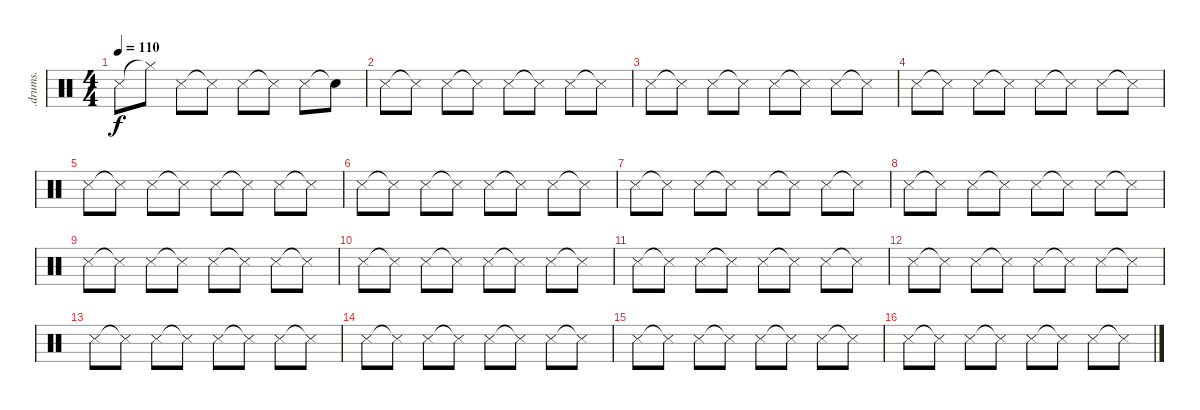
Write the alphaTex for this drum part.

\track (".drums." ".drums.") {instrument percussion}
\staff {score}
\articulation defaults
\ts (4 4)
\tempo 110
\clef neutral
\ks c "Snare (side stick) 3".8{dy f} "Hi-Hat (closed)"{t}.8 "Snare (side stick) 3".8 "Snare (side stick) 3"{t}.8 "Snare (side stick) 3".8 "Snare (side stick) 3"{t}.8 "Snare (side stick) 3".8 "Snare (hit)"{t}.8
|
"Snare (side stick) 3".8 "Snare (side stick) 3"{t}.8 "Snare (side stick) 3".8 "Snare (side stick) 3"{t}.8 "Snare (side stick) 3".8 "Snare (side stick) 3"{t}.8 "Snare (side stick) 3".8 "Snare (side stick) 3"{t}.8 |
"Snare (side stick) 3".8 "Snare (side stick) 3"{t}.8 "Snare (side stick) 3".8 "Snare (side stick) 3"{t}.8 "Snare (side stick) 3".8 "Snare (side stick) 3"{t}.8 "Snare (side stick) 3".8 "Snare (side stick) 3"{t}.8 |
"Snare (side stick) 3".8 "Snare (side stick) 3"{t}.8 "Snare (side stick) 3".8 "Snare (side stick) 3"{t}.8 "Snare (side stick) 3".8 "Snare (side stick) 3"{t}.8 "Snare (side stick) 3".8 "Snare (side stick) 3"{t}.8 |
"Snare (side stick) 3".8 "Snare (side stick) 3"{t}.8 "Snare (side stick) 3".8 "Snare (side stick) 3"{t}.8 "Snare (side stick) 3".8 "Snare (side stick) 3"{t}.8 "Snare (side stick) 3".8 "Snare (side stick) 3"{t}.8 |
"Snare (side stick) 3".8 "Snare (side stick) 3"{t}.8 "Snare (side stick) 3".8 "Snare (side stick) 3"{t}.8 "Snare (side stick) 3".8 "Snare (side stick) 3"{t}.8 "Snare (side stick) 3".8 "Snare (side stick) 3"{t}.8 |
"Snare (side stick) 3".8 "Snare (side stick) 3"{t}.8 "Snare (side stick) 3".8 "Snare (side stick) 3"{t}.8 "Snare (side stick) 3".8 "Snare (side stick) 3"{t}.8 "Snare (side stick) 3".8 "Snare (side stick) 3"{t}.8 |
"Snare (side stick) 3".8 "Snare (side stick) 3"{t}.8 "Snare (side stick) 3".8 "Snare (side stick) 3"{t}.8 "Snare (side stick) 3".8 "Snare (side stick) 3"{t}.8 "Snare (side stick) 3".8 "Snare (side stick) 3"{t}.8 |
"Snare (side stick) 3".8 "Snare (side stick) 3"{t}.8 "Snare (side stick) 3".8 "Snare (side stick) 3"{t}.8 "Snare (side stick) 3".8 "Snare (side stick) 3"{t}.8 "Snare (side stick) 3".8 "Snare (side stick) 3"{t}.8 |
"Snare (side stick) 3".8 "Snare (side stick) 3"{t}.8 "Snare (side stick) 3".8 "Snare (side stick) 3"{t}.8 "Snare (side stick) 3".8 "Snare (side stick) 3"{t}.8 "Snare (side stick) 3".8 "Snare (side stick) 3"{t}.8 |
"Snare (side stick) 3".8 "Snare (side stick) 3"{t}.8 "Snare (side stick) 3".8 "Snare (side stick) 3"{t}.8 "Snare (side stick) 3".8 "Snare (side stick) 3"{t}.8 "Snare (side stick) 3".8 "Snare (side stick) 3"{t}.8 |
"Snare (side stick) 3".8 "Snare (side stick) 3"{t}.8 "Snare (side stick) 3".8 "Snare (side stick) 3"{t}.8 "Snare (side stick) 3".8 "Snare (side stick) 3"{t}.8 "Snare (side stick) 3".8 "Snare (side stick) 3"{t}.8 |
"Snare (side stick) 3".8 "Snare (side stick) 3"{t}.8 "Snare (side stick) 3".8 "Snare (side stick) 3"{t}.8 "Snare (side stick) 3".8 "Snare (side stick) 3"{t}.8 "Snare (side stick) 3".8 "Snare (side stick) 3"{t}.8 |
"Snare (side stick) 3".8 "Snare (side stick) 3"{t}.8 "Snare (side stick) 3".8 "Snare (side stick) 3"{t}.8 "Snare (side stick) 3".8 "Snare (side stick) 3"{t}.8 "Snare (side stick) 3".8 "Snare (side stick) 3"{t}.8 |
"Snare (side stick) 3".8 "Snare (side stick) 3"{t}.8 "Snare (side stick) 3".8 "Snare (side stick) 3"{t}.8 "Snare (side stick) 3".8 "Snare (side stick) 3"{t}.8 "Snare (side stick) 3".8 "Snare (side stick) 3"{t}.8 |
"Snare (side stick) 3".8 "Snare (side stick) 3"{t}.8 "Snare (side stick) 3".8 "Snare (side stick) 3"{t}.8 "Snare (side stick) 3".8 "Snare (side stick) 3"{t}.8 "Snare (side stick) 3".8 "Snare (side stick) 3"{t}.8
